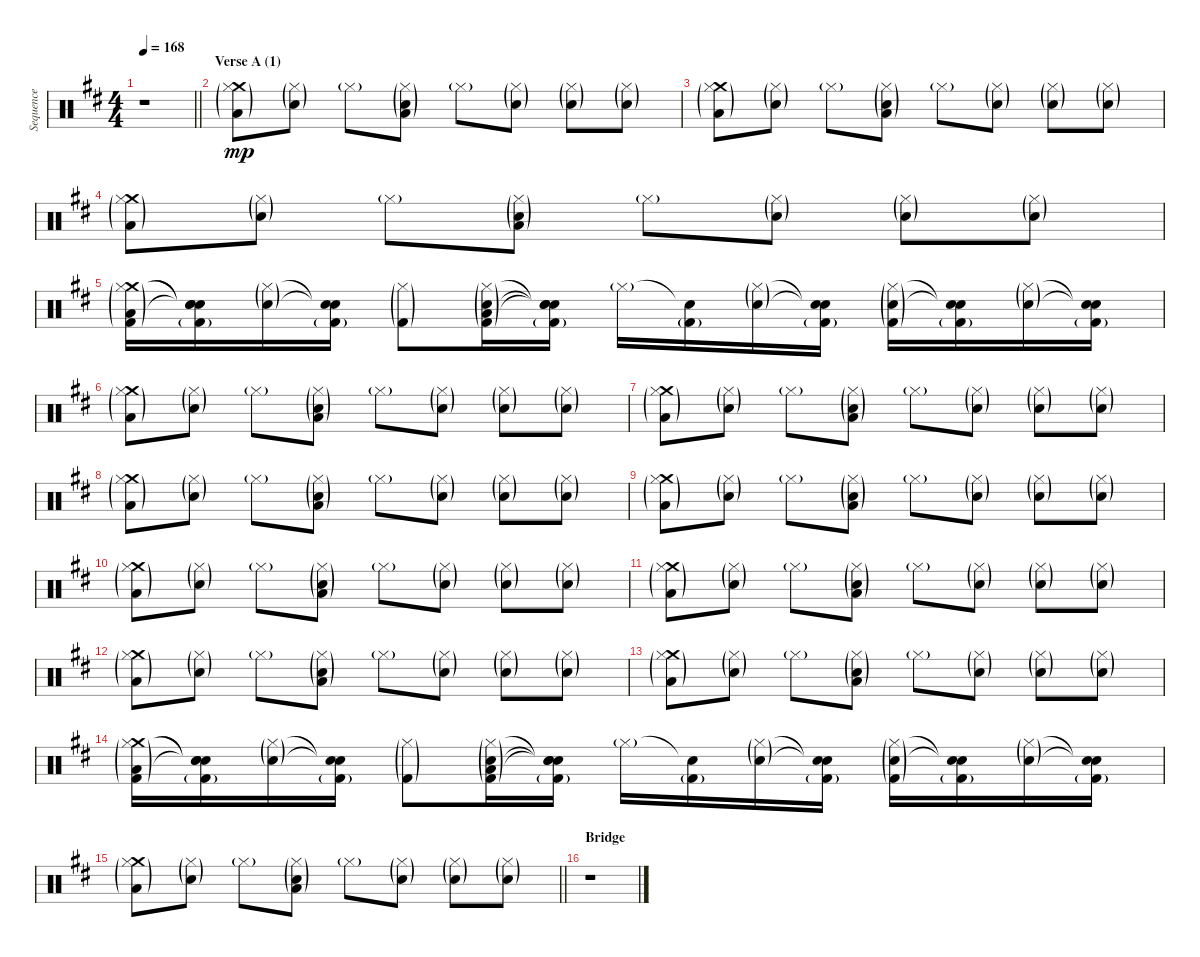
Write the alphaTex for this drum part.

\track ("Sequence" "Sequence") {instrument percussion}
\staff {score}
\articulation defaults
\ts (4 4)
\tempo 168
\clef neutral
\barLineRight lightlight
\ks d
r.1{dy mp} |
\section ("" "Verse A (1)")
("Crash medium (hit)"{g} "Hi-Hat (closed)"{g} "Low Floor Tom (hit)"{g}).8 ("Hi-Hat (closed)"{g} "Electric Snare (hit)"{g}).8 "Hi-Hat (closed)"{g}.8 ("Hi-Hat (closed)"{g} "Electric Snare (hit)"{g} "Low Floor Tom (hit)"{g}).8 "Hi-Hat (closed)"{g}.8 ("Hi-Hat (closed)"{g} "Electric Snare (hit)"{g}).8 ("Hi-Hat (closed)"{g} "Electric Snare (hit)"{g}).8 ("Hi-Hat (closed)"{g} "Electric Snare (hit)"{g}).8 |
("Crash medium (hit)"{g} "Hi-Hat (closed)"{g} "Low Floor Tom (hit)"{g}).8 ("Hi-Hat (closed)"{g} "Electric Snare (hit)"{g}).8 "Hi-Hat (closed)"{g}.8 ("Hi-Hat (closed)"{g} "Electric Snare (hit)"{g} "Low Floor Tom (hit)"{g}).8 "Hi-Hat (closed)"{g}.8 ("Hi-Hat (closed)"{g} "Electric Snare (hit)"{g}).8 ("Hi-Hat (closed)"{g} "Electric Snare (hit)"{g}).8 ("Hi-Hat (closed)"{g} "Electric Snare (hit)"{g}).8 |
("Crash medium (hit)"{g} "Hi-Hat (closed)"{g} "Low Floor Tom (hit)"{g}).8 ("Hi-Hat (closed)"{g} "Electric Snare (hit)"{g}).8 "Hi-Hat (closed)"{g}.8 ("Hi-Hat (closed)"{g} "Electric Snare (hit)"{g} "Low Floor Tom (hit)"{g}).8 "Hi-Hat (closed)"{g}.8 ("Hi-Hat (closed)"{g} "Electric Snare (hit)"{g}).8 ("Hi-Hat (closed)"{g} "Electric Snare (hit)"{g}).8 ("Hi-Hat (closed)"{g} "Electric Snare (hit)"{g}).8 |
("Crash medium (hit)"{g} "Hi-Hat (closed)"{g} "Low Floor Tom (hit)"{g} "Kick (hit) 2"{g}).16 ("Snare (hit)"{t} "Snare (hit)"{t} "Snare (hit)"{t} "Kick (hit) 2"{g}).16 ("Hi-Hat (closed)"{g} "Electric Snare (hit)"{g}).16 ("Snare (hit)"{t} "Snare (hit)"{t} "Kick (hit) 2"{g}).16 ("Hi-Hat (closed)"{g} "Kick (hit) 2"{g}).8 ("Hi-Hat (closed)"{g} "Electric Snare (hit)"{g} "Low Floor Tom (hit)"{g} "Kick (hit) 2"{g}).16 ("Snare (hit)"{t} "Snare (hit)"{t} "Snare (hit)"{t} "Kick (hit) 2"{g}).16 "Hi-Hat (closed)"{g}.16 ("Snare (hit)"{t} "Kick (hit) 2"{g}).16 ("Hi-Hat (closed)"{g} "Electric Snare (hit)"{g}).16 ("Snare (hit)"{t} "Snare (hit)"{t} "Kick (hit) 2"{g}).16 ("Hi-Hat (closed)"{g} "Electric Snare (hit)"{g} "Kick (hit) 2"{g}).16 ("Snare (hit)"{t} "Snare (hit)"{t} "Kick (hit) 2"{g}).16 ("Hi-Hat (closed)"{g} "Electric Snare (hit)"{g}).16 ("Snare (hit)"{t} "Snare (hit)"{t} "Kick (hit) 2"{g}).16 |
("Crash medium (hit)"{g} "Hi-Hat (closed)"{g} "Low Floor Tom (hit)"{g}).8 ("Hi-Hat (closed)"{g} "Electric Snare (hit)"{g}).8 "Hi-Hat (closed)"{g}.8 ("Hi-Hat (closed)"{g} "Electric Snare (hit)"{g} "Low Floor Tom (hit)"{g}).8 "Hi-Hat (closed)"{g}.8 ("Hi-Hat (closed)"{g} "Electric Snare (hit)"{g}).8 ("Hi-Hat (closed)"{g} "Electric Snare (hit)"{g}).8 ("Hi-Hat (closed)"{g} "Electric Snare (hit)"{g}).8 |
("Crash medium (hit)"{g} "Hi-Hat (closed)"{g} "Low Floor Tom (hit)"{g}).8 ("Hi-Hat (closed)"{g} "Electric Snare (hit)"{g}).8 "Hi-Hat (closed)"{g}.8 ("Hi-Hat (closed)"{g} "Electric Snare (hit)"{g} "Low Floor Tom (hit)"{g}).8 "Hi-Hat (closed)"{g}.8 ("Hi-Hat (closed)"{g} "Electric Snare (hit)"{g}).8 ("Hi-Hat (closed)"{g} "Electric Snare (hit)"{g}).8 ("Hi-Hat (closed)"{g} "Electric Snare (hit)"{g}).8 |
("Crash medium (hit)"{g} "Hi-Hat (closed)"{g} "Low Floor Tom (hit)"{g}).8 ("Hi-Hat (closed)"{g} "Electric Snare (hit)"{g}).8 "Hi-Hat (closed)"{g}.8 ("Hi-Hat (closed)"{g} "Electric Snare (hit)"{g} "Low Floor Tom (hit)"{g}).8 "Hi-Hat (closed)"{g}.8 ("Hi-Hat (closed)"{g} "Electric Snare (hit)"{g}).8 ("Hi-Hat (closed)"{g} "Electric Snare (hit)"{g}).8 ("Hi-Hat (closed)"{g} "Electric Snare (hit)"{g}).8 |
("Crash medium (hit)"{g} "Hi-Hat (closed)"{g} "Low Floor Tom (hit)"{g}).8 ("Hi-Hat (closed)"{g} "Electric Snare (hit)"{g}).8 "Hi-Hat (closed)"{g}.8 ("Hi-Hat (closed)"{g} "Electric Snare (hit)"{g} "Low Floor Tom (hit)"{g}).8 "Hi-Hat (closed)"{g}.8 ("Hi-Hat (closed)"{g} "Electric Snare (hit)"{g}).8 ("Hi-Hat (closed)"{g} "Electric Snare (hit)"{g}).8 ("Hi-Hat (closed)"{g} "Electric Snare (hit)"{g}).8 |
("Crash medium (hit)"{g} "Hi-Hat (closed)"{g} "Low Floor Tom (hit)"{g}).8 ("Hi-Hat (closed)"{g} "Electric Snare (hit)"{g}).8 "Hi-Hat (closed)"{g}.8 ("Hi-Hat (closed)"{g} "Electric Snare (hit)"{g} "Low Floor Tom (hit)"{g}).8 "Hi-Hat (closed)"{g}.8 ("Hi-Hat (closed)"{g} "Electric Snare (hit)"{g}).8 ("Hi-Hat (closed)"{g} "Electric Snare (hit)"{g}).8 ("Hi-Hat (closed)"{g} "Electric Snare (hit)"{g}).8 |
("Crash medium (hit)"{g} "Hi-Hat (closed)"{g} "Low Floor Tom (hit)"{g}).8 ("Hi-Hat (closed)"{g} "Electric Snare (hit)"{g}).8 "Hi-Hat (closed)"{g}.8 ("Hi-Hat (closed)"{g} "Electric Snare (hit)"{g} "Low Floor Tom (hit)"{g}).8 "Hi-Hat (closed)"{g}.8 ("Hi-Hat (closed)"{g} "Electric Snare (hit)"{g}).8 ("Hi-Hat (closed)"{g} "Electric Snare (hit)"{g}).8 ("Hi-Hat (closed)"{g} "Electric Snare (hit)"{g}).8 |
("Crash medium (hit)"{g} "Hi-Hat (closed)"{g} "Low Floor Tom (hit)"{g}).8 ("Hi-Hat (closed)"{g} "Electric Snare (hit)"{g}).8 "Hi-Hat (closed)"{g}.8 ("Hi-Hat (closed)"{g} "Electric Snare (hit)"{g} "Low Floor Tom (hit)"{g}).8 "Hi-Hat (closed)"{g}.8 ("Hi-Hat (closed)"{g} "Electric Snare (hit)"{g}).8 ("Hi-Hat (closed)"{g} "Electric Snare (hit)"{g}).8 ("Hi-Hat (closed)"{g} "Electric Snare (hit)"{g}).8 |
("Crash medium (hit)"{g} "Hi-Hat (closed)"{g} "Low Floor Tom (hit)"{g}).8 ("Hi-Hat (closed)"{g} "Electric Snare (hit)"{g}).8 "Hi-Hat (closed)"{g}.8 ("Hi-Hat (closed)"{g} "Electric Snare (hit)"{g} "Low Floor Tom (hit)"{g}).8 "Hi-Hat (closed)"{g}.8 ("Hi-Hat (closed)"{g} "Electric Snare (hit)"{g}).8 ("Hi-Hat (closed)"{g} "Electric Snare (hit)"{g}).8 ("Hi-Hat (closed)"{g} "Electric Snare (hit)"{g}).8 |
("Crash medium (hit)"{g} "Hi-Hat (closed)"{g} "Low Floor Tom (hit)"{g} "Kick (hit) 2"{g}).16 ("Snare (hit)"{t} "Snare (hit)"{t} "Snare (hit)"{t} "Kick (hit) 2"{g}).16 ("Hi-Hat (closed)"{g} "Electric Snare (hit)"{g}).16 ("Snare (hit)"{t} "Snare (hit)"{t} "Kick (hit) 2"{g}).16 ("Hi-Hat (closed)"{g} "Kick (hit) 2"{g}).8 ("Hi-Hat (closed)"{g} "Electric Snare (hit)"{g} "Low Floor Tom (hit)"{g} "Kick (hit) 2"{g}).16 ("Snare (hit)"{t} "Snare (hit)"{t} "Snare (hit)"{t} "Kick (hit) 2"{g}).16 "Hi-Hat (closed)"{g}.16 ("Snare (hit)"{t} "Kick (hit) 2"{g}).16 ("Hi-Hat (closed)"{g} "Electric Snare (hit)"{g}).16 ("Snare (hit)"{t} "Snare (hit)"{t} "Kick (hit) 2"{g}).16 ("Hi-Hat (closed)"{g} "Electric Snare (hit)"{g} "Kick (hit) 2"{g}).16 ("Snare (hit)"{t} "Snare (hit)"{t} "Kick (hit) 2"{g}).16 ("Hi-Hat (closed)"{g} "Electric Snare (hit)"{g}).16 ("Snare (hit)"{t} "Snare (hit)"{t} "Kick (hit) 2"{g}).16 |
\barLineRight lightlight
("Crash medium (hit)"{g} "Hi-Hat (closed)"{g} "Low Floor Tom (hit)"{g}).8 ("Hi-Hat (closed)"{g} "Electric Snare (hit)"{g}).8 "Hi-Hat (closed)"{g}.8 ("Hi-Hat (closed)"{g} "Electric Snare (hit)"{g} "Low Floor Tom (hit)"{g}).8 "Hi-Hat (closed)"{g}.8 ("Hi-Hat (closed)"{g} "Electric Snare (hit)"{g}).8 ("Hi-Hat (closed)"{g} "Electric Snare (hit)"{g}).8 ("Hi-Hat (closed)"{g} "Electric Snare (hit)"{g}).8 |
\section ("" "Bridge")
r.1
